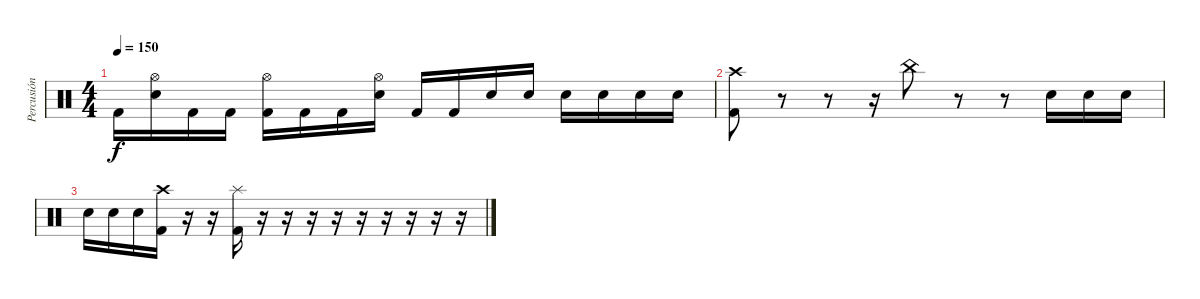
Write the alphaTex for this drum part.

\track ("Percusión" "Percusión") {instrument percussion}
\staff {score}
\articulation defaults
\ts (4 4)
\tempo 150
\clef neutral
\ks c "Kick (hit) 2".16{dy f}
("Hi-Hat (open)" "Electric Snare (hit)").16 "Kick (hit) 2".16 "Kick (hit) 2".16 ("Hi-Hat (open)" "Kick (hit) 2").16 "Kick (hit) 2".16 "Kick (hit) 2".16 ("Hi-Hat (open)" "Electric Snare (hit)").16 "Kick (hit) 2".16 "Kick (hit) 2".16 "Electric Snare (hit)".16 "Electric Snare (hit)".16 "Electric Snare (hit)".16 "Electric Snare (hit)".16 "Electric Snare (hit)".16 "Electric Snare (hit)".16 |
("Crash high (hit)" "Kick (hit) 2").8 r.8 r.8 r.16 "China (hit)".8 r.8 r.8 "Electric Snare (hit)".16 "Electric Snare (hit)".16 "Electric Snare (hit)".16 |
"Electric Snare (hit)".16 "Electric Snare (hit)".16 "Electric Snare (hit)".16 ("Crash high (hit)" "Kick (hit) 2").16 r.16 r.16 ("Splash (hit)" "Kick (hit) 2").16 r.16 r.16 r.16 r.16 r.16 r.16 r.16 r.16 r.16
